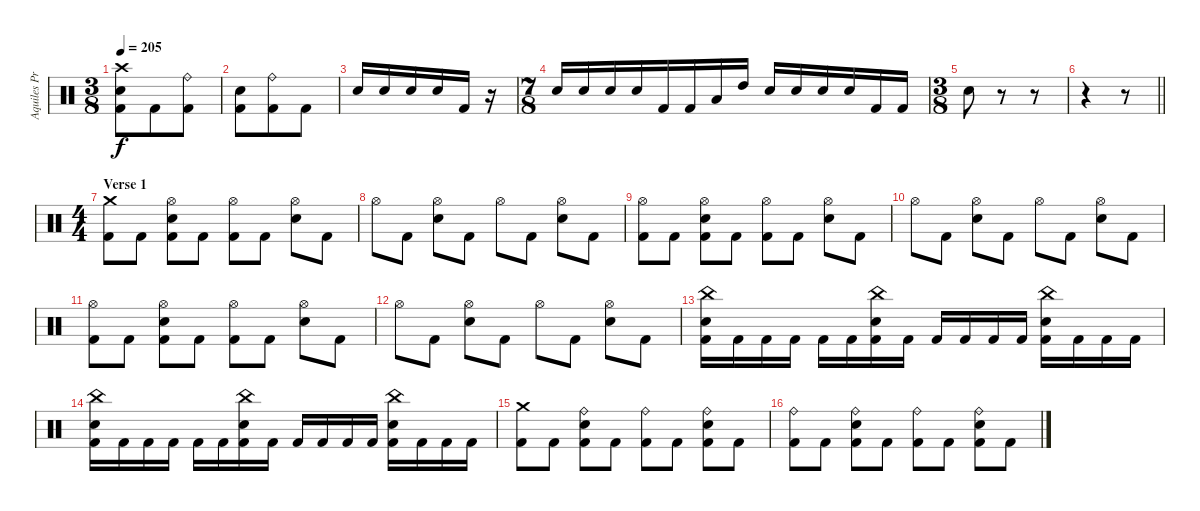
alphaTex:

\track ("Aquiles Priester" "Aquiles Pr") {instrument percussion}
\staff {score}
\articulation defaults
\ts (3 8)
\tempo 205
\clef neutral
\ks c
("Crash high (hit)" "Electric Snare (hit)" "Kick (hit) 2").8{dy f} "Kick (hit) 2".8 ("Ride (bell)" "Kick (hit) 2").8 |
("Electric Snare (hit)" "Kick (hit) 2").8 ("Ride (bell)" "Kick (hit) 2").8 "Kick (hit) 2".8 |
"Electric Snare (hit)".16 "Electric Snare (hit)".16 "Electric Snare (hit)".16 "Electric Snare (hit)".16 "Kick (hit) 2".16 r.16 |
\ts (7 8)
"Electric Snare (hit)".16 "Electric Snare (hit)".16 "Electric Snare (hit)".16 "Electric Snare (hit)".16 "Kick (hit) 2".16 "Kick (hit) 2".16 "Low Tom (hit)".16 "High Tom (hit)".16 "Electric Snare (hit)".16 "Electric Snare (hit)".16 "Electric Snare (hit)".16 "Electric Snare (hit)".16 "Kick (hit) 2".16 "Kick (hit) 2".16 |
\ts (3 8)
"Electric Snare (hit)".8 r.8 r.8 |
\barLineRight lightlight
r.4 r.8 |
\ts (4 4)
\section ("" "Verse 1")
("Crash medium (hit)" "Kick (hit) 2").8 "Kick (hit) 2".8 ("Hi-Hat (open)" "Electric Snare (hit)" "Kick (hit) 2").8 "Kick (hit) 2".8 ("Hi-Hat (open)" "Kick (hit) 2").8 "Kick (hit) 2".8 ("Hi-Hat (open)" "Electric Snare (hit)").8 "Kick (hit) 2".8 |
"Hi-Hat (open)".8 "Kick (hit) 2".8 ("Hi-Hat (open)" "Electric Snare (hit)").8 "Kick (hit) 2".8 "Hi-Hat (open)".8 "Kick (hit) 2".8 ("Hi-Hat (open)" "Electric Snare (hit)").8 "Kick (hit) 2".8 |
("Hi-Hat (open)" "Kick (hit) 2").8 "Kick (hit) 2".8 ("Hi-Hat (open)" "Electric Snare (hit)" "Kick (hit) 2").8 "Kick (hit) 2".8 ("Hi-Hat (open)" "Kick (hit) 2").8 "Kick (hit) 2".8 ("Hi-Hat (open)" "Electric Snare (hit)").8 "Kick (hit) 2".8 |
"Hi-Hat (open)".8 "Kick (hit) 2".8 ("Hi-Hat (open)" "Electric Snare (hit)").8 "Kick (hit) 2".8 "Hi-Hat (open)".8 "Kick (hit) 2".8 ("Hi-Hat (open)" "Electric Snare (hit)").8 "Kick (hit) 2".8 |
("Hi-Hat (open)" "Kick (hit) 2").8 "Kick (hit) 2".8 ("Hi-Hat (open)" "Electric Snare (hit)" "Kick (hit) 2").8 "Kick (hit) 2".8 ("Hi-Hat (open)" "Kick (hit) 2").8 "Kick (hit) 2".8 ("Hi-Hat (open)" "Electric Snare (hit)").8 "Kick (hit) 2".8 |
"Hi-Hat (open)".8 "Kick (hit) 2".8 ("Hi-Hat (open)" "Electric Snare (hit)").8 "Kick (hit) 2".8 "Hi-Hat (open)".8 "Kick (hit) 2".8 ("Hi-Hat (open)" "Electric Snare (hit)").8 "Kick (hit) 2".8 |
("China (hit)" "Electric Snare (hit)" "Kick (hit) 2").16 "Kick (hit) 2".16 "Kick (hit) 2".16 "Kick (hit) 2".16 "Kick (hit) 2".16 "Kick (hit) 2".16 ("China (hit)" "Electric Snare (hit)" "Kick (hit) 2").16 "Kick (hit) 2".16 "Kick (hit) 2".16 "Kick (hit) 2".16 "Kick (hit) 2".16 "Kick (hit) 2".16 ("China (hit)" "Electric Snare (hit)" "Kick (hit) 2").16 "Kick (hit) 2".16 "Kick (hit) 2".16 "Kick (hit) 2".16 |
("China (hit)" "Electric Snare (hit)" "Kick (hit) 2").16 "Kick (hit) 2".16 "Kick (hit) 2".16 "Kick (hit) 2".16 "Kick (hit) 2".16 "Kick (hit) 2".16 ("China (hit)" "Electric Snare (hit)" "Kick (hit) 2").16 "Kick (hit) 2".16 "Kick (hit) 2".16 "Kick (hit) 2".16 "Kick (hit) 2".16 "Kick (hit) 2".16 ("China (hit)" "Electric Snare (hit)" "Kick (hit) 2").16 "Kick (hit) 2".16 "Kick (hit) 2".16 "Kick (hit) 2".16 |
("Crash medium (hit)" "Kick (hit) 2").8 "Kick (hit) 2".8 ("Ride (bell)" "Electric Snare (hit)" "Kick (hit) 2").8 "Kick (hit) 2".8 ("Ride (bell)" "Kick (hit) 2").8 "Kick (hit) 2".8 ("Ride (bell)" "Electric Snare (hit)" "Kick (hit) 2").8 "Kick (hit) 2".8 |
("Ride (bell)" "Kick (hit) 2").8 "Kick (hit) 2".8 ("Ride (bell)" "Electric Snare (hit)" "Kick (hit) 2").8 "Kick (hit) 2".8 ("Ride (bell)" "Kick (hit) 2").8 "Kick (hit) 2".8 ("Ride (bell)" "Electric Snare (hit)" "Kick (hit) 2").8 "Kick (hit) 2".8
